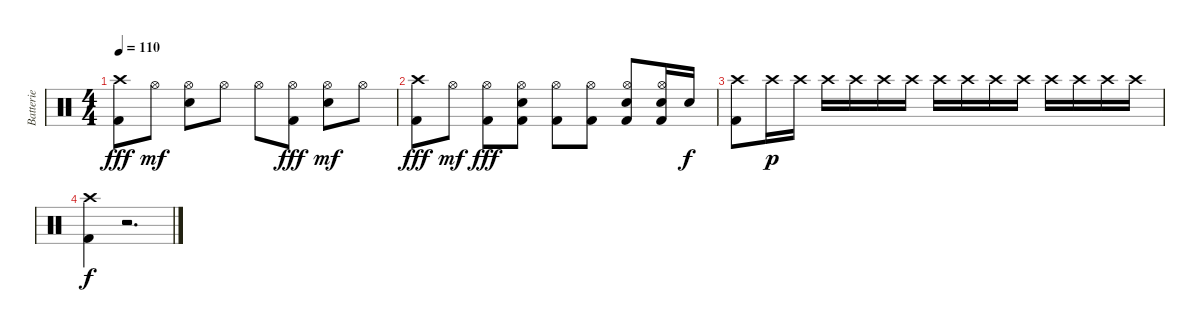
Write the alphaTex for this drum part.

\track ("Batterie" "Batterie") {instrument percussion}
\staff {score}
\articulation defaults
\ts (4 4)
\tempo 110
\clef neutral
\ks c
("Crash high (hit)" "Kick (hit) 2").8{dy fff} "Hi-Hat (open)".8{dy mf} ("Hi-Hat (open)" "Snare (hit) 2").8 "Hi-Hat (open)".8 "Hi-Hat (open)".8 ("Hi-Hat (open)" "Kick (hit) 2").8{dy fff} ("Hi-Hat (open)" "Snare (hit) 2").8{dy mf} "Hi-Hat (open)".8 |
("Crash high (hit)" "Kick (hit) 2").8{dy fff} "Hi-Hat (open)".8{dy mf} ("Hi-Hat (open)" "Kick (hit) 2").8{dy fff} ("Hi-Hat (open)" "Snare (hit) 2" "Kick (hit) 2").8 ("Hi-Hat (open)" "Kick (hit) 2").8 ("Hi-Hat (open)" "Kick (hit) 2").8 ("Hi-Hat (open)" "Snare (hit) 2" "Kick (hit) 2").8 ("Hi-Hat (open)" "Snare (hit) 2" "Kick (hit) 2").16 "Snare (hit) 2".16{dy f} |
("Crash high (hit)" "Kick (hit) 2").8 "Crash high (hit)".16{dy p} "Crash high (hit)".16 "Crash high (hit)".16 "Crash high (hit)".16 "Crash high (hit)".16 "Crash high (hit)".16 "Crash high (hit)".16 "Crash high (hit)".16 "Crash high (hit)".16 "Crash high (hit)".16 "Crash high (hit)".16 "Crash high (hit)".16 "Crash high (hit)".16 "Crash high (hit)".16 |
("Crash high (hit)" "Kick (hit) 2").4{dy f volume 5} r.2{d}
